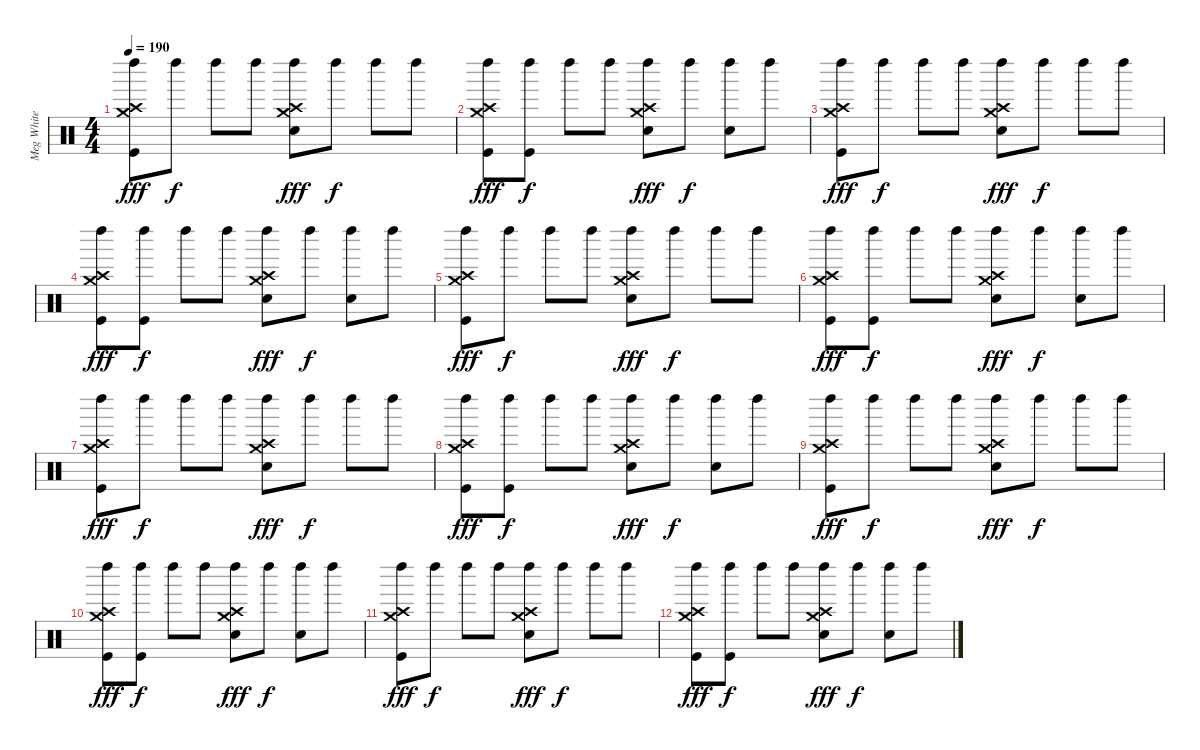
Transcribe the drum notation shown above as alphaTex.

\track ("Meg White" "Meg White") {instrument percussion}
\staff {score}
\articulation defaults
\ts (4 4)
\tempo 190
\clef neutral
\ks c
("Crash high (hit)" "Crash medium (hit)" "Kick (hit)" "Left Maraca (hit)").8{dy fff} "Left Maraca (hit)".8{dy f} "Left Maraca (hit)".8 "Left Maraca (hit)".8 ("Crash high (hit)" "Crash medium (hit)" "Snare (hit) 2" "Left Maraca (hit)").8{dy fff} "Left Maraca (hit)".8{dy f} "Left Maraca (hit)".8 "Left Maraca (hit)".8 |
("Crash high (hit)" "Crash medium (hit)" "Kick (hit)" "Left Maraca (hit)").8{dy fff} ("Kick (hit)" "Left Maraca (hit)").8{dy f} "Left Maraca (hit)".8 "Left Maraca (hit)".8 ("Crash high (hit)" "Crash medium (hit)" "Snare (hit) 2" "Left Maraca (hit)").8{dy fff} "Left Maraca (hit)".8{dy f} ("Snare (hit) 2" "Left Maraca (hit)").8 "Left Maraca (hit)".8 |
("Crash high (hit)" "Crash medium (hit)" "Kick (hit)" "Left Maraca (hit)").8{dy fff} "Left Maraca (hit)".8{dy f} "Left Maraca (hit)".8 "Left Maraca (hit)".8 ("Crash high (hit)" "Crash medium (hit)" "Snare (hit) 2" "Left Maraca (hit)").8{dy fff} "Left Maraca (hit)".8{dy f} "Left Maraca (hit)".8 "Left Maraca (hit)".8 |
("Crash high (hit)" "Crash medium (hit)" "Kick (hit)" "Left Maraca (hit)").8{dy fff} ("Kick (hit)" "Left Maraca (hit)").8{dy f} "Left Maraca (hit)".8 "Left Maraca (hit)".8 ("Crash high (hit)" "Crash medium (hit)" "Snare (hit) 2" "Left Maraca (hit)").8{dy fff} "Left Maraca (hit)".8{dy f} ("Snare (hit) 2" "Left Maraca (hit)").8 "Left Maraca (hit)".8 |
("Crash high (hit)" "Crash medium (hit)" "Kick (hit)" "Left Maraca (hit)").8{dy fff} "Left Maraca (hit)".8{dy f} "Left Maraca (hit)".8 "Left Maraca (hit)".8 ("Crash high (hit)" "Crash medium (hit)" "Snare (hit) 2" "Left Maraca (hit)").8{dy fff} "Left Maraca (hit)".8{dy f} "Left Maraca (hit)".8 "Left Maraca (hit)".8 |
("Crash high (hit)" "Crash medium (hit)" "Kick (hit)" "Left Maraca (hit)").8{dy fff} ("Kick (hit)" "Left Maraca (hit)").8{dy f} "Left Maraca (hit)".8 "Left Maraca (hit)".8 ("Crash high (hit)" "Crash medium (hit)" "Snare (hit) 2" "Left Maraca (hit)").8{dy fff} "Left Maraca (hit)".8{dy f} ("Snare (hit) 2" "Left Maraca (hit)").8 "Left Maraca (hit)".8 |
("Crash high (hit)" "Crash medium (hit)" "Kick (hit)" "Left Maraca (hit)").8{dy fff} "Left Maraca (hit)".8{dy f} "Left Maraca (hit)".8 "Left Maraca (hit)".8 ("Crash high (hit)" "Crash medium (hit)" "Snare (hit) 2" "Left Maraca (hit)").8{dy fff} "Left Maraca (hit)".8{dy f} "Left Maraca (hit)".8 "Left Maraca (hit)".8 |
("Crash high (hit)" "Crash medium (hit)" "Kick (hit)" "Left Maraca (hit)").8{dy fff} ("Kick (hit)" "Left Maraca (hit)").8{dy f} "Left Maraca (hit)".8 "Left Maraca (hit)".8 ("Crash high (hit)" "Crash medium (hit)" "Snare (hit) 2" "Left Maraca (hit)").8{dy fff} "Left Maraca (hit)".8{dy f} ("Snare (hit) 2" "Left Maraca (hit)").8 "Left Maraca (hit)".8 |
("Crash high (hit)" "Crash medium (hit)" "Kick (hit)" "Left Maraca (hit)").8{dy fff} "Left Maraca (hit)".8{dy f} "Left Maraca (hit)".8 "Left Maraca (hit)".8 ("Crash high (hit)" "Crash medium (hit)" "Snare (hit) 2" "Left Maraca (hit)").8{dy fff} "Left Maraca (hit)".8{dy f} "Left Maraca (hit)".8 "Left Maraca (hit)".8 |
("Crash high (hit)" "Crash medium (hit)" "Kick (hit)" "Left Maraca (hit)").8{dy fff} ("Kick (hit)" "Left Maraca (hit)").8{dy f} "Left Maraca (hit)".8 "Left Maraca (hit)".8 ("Crash high (hit)" "Crash medium (hit)" "Snare (hit) 2" "Left Maraca (hit)").8{dy fff} "Left Maraca (hit)".8{dy f} ("Snare (hit) 2" "Left Maraca (hit)").8 "Left Maraca (hit)".8 |
("Crash high (hit)" "Crash medium (hit)" "Kick (hit)" "Left Maraca (hit)").8{dy fff} "Left Maraca (hit)".8{dy f} "Left Maraca (hit)".8 "Left Maraca (hit)".8 ("Crash high (hit)" "Crash medium (hit)" "Snare (hit) 2" "Left Maraca (hit)").8{dy fff} "Left Maraca (hit)".8{dy f} "Left Maraca (hit)".8 "Left Maraca (hit)".8 |
("Crash high (hit)" "Crash medium (hit)" "Kick (hit)" "Left Maraca (hit)").8{dy fff} ("Kick (hit)" "Left Maraca (hit)").8{dy f} "Left Maraca (hit)".8 "Left Maraca (hit)".8 ("Crash high (hit)" "Crash medium (hit)" "Snare (hit) 2" "Left Maraca (hit)").8{dy fff} "Left Maraca (hit)".8{dy f} ("Snare (hit) 2" "Left Maraca (hit)").8 "Left Maraca (hit)".8
